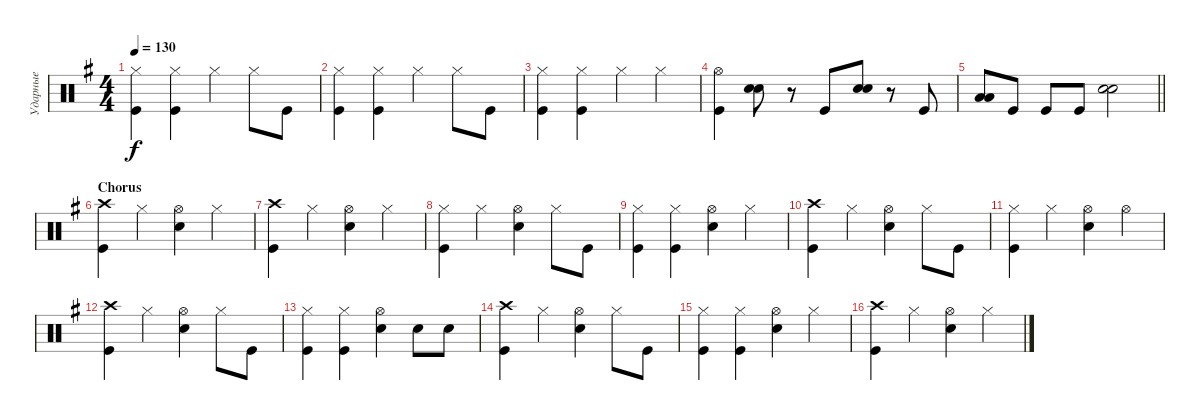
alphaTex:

\track ("Ударные" "Ударные") {instrument percussion}
\staff {score}
\articulation defaults
\ts (4 4)
\tempo 130
\clef neutral
\ks eminor
("Kick (hit)" "Hi-Hat (closed)").4{dy f} ("Hi-Hat (closed)" "Kick (hit)").4 "Hi-Hat (closed)".4 "Hi-Hat (closed)".8 "Kick (hit)".8 |
("Kick (hit)" "Hi-Hat (closed)").4 ("Hi-Hat (closed)" "Kick (hit)").4 "Hi-Hat (closed)".4 "Hi-Hat (closed)".8 "Kick (hit)".8 |
("Kick (hit)" "Hi-Hat (closed)").4 ("Hi-Hat (closed)" "Kick (hit)").4 "Hi-Hat (closed)".4 "Hi-Hat (closed)".4 |
("Hi-Hat (open)" "Kick (hit)").4 ("Snare (hit) 2" "Snare (hit) 2").8{bd 240} r.8 "Kick (hit)".8 ("Snare (hit) 2" "Snare (hit) 2").8{bd 240} r.8 "Kick (hit)".8 |
\barLineRight lightlight
("Low Tom (hit)" "Low Tom (hit)").8{bd 240} "Kick (hit)".8 "Kick (hit)".8 "Kick (hit)".8 ("Snare (hit) 2" "Snare (hit) 2").2{bd 240} |
\section ("" "Chorus")
("Kick (hit)" "Crash high (hit)").4 "Hi-Hat (closed)".4 ("Hi-Hat (open)" "Snare (hit) 2").4 "Hi-Hat (closed)".4 |
("Crash high (hit)" "Kick (hit)").4 "Hi-Hat (closed)".4 ("Hi-Hat (open)" "Snare (hit) 2").4 "Hi-Hat (closed)".4 |
("Hi-Hat (closed)" "Kick (hit)").4 "Hi-Hat (closed)".4 ("Hi-Hat (open)" "Snare (hit) 2").4 "Hi-Hat (closed)".8 "Kick (hit)".8 |
("Hi-Hat (closed)" "Kick (hit)").4 ("Hi-Hat (closed)" "Kick (hit)").4 ("Hi-Hat (open)" "Snare (hit) 2").4 "Hi-Hat (closed)".4 |
("Kick (hit)" "Crash high (hit)").4 "Hi-Hat (closed)".4 ("Hi-Hat (open)" "Snare (hit) 2").4 "Hi-Hat (closed)".8 "Kick (hit)".8 |
("Hi-Hat (closed)" "Kick (hit)").4 "Hi-Hat (closed)".4 ("Hi-Hat (open)" "Snare (hit) 2").4 "Hi-Hat (open)".4 |
("Crash high (hit)" "Kick (hit)").4 "Hi-Hat (closed)".4 ("Hi-Hat (open)" "Snare (hit) 2").4 "Hi-Hat (closed)".8 "Kick (hit)".8 |
("Hi-Hat (closed)" "Kick (hit)").4 ("Hi-Hat (closed)" "Kick (hit)").4 ("Hi-Hat (open)" "Snare (hit) 2").4 "Snare (hit) 2".8 "Snare (hit) 2".8 |
("Kick (hit)" "Crash high (hit)").4 "Hi-Hat (closed)".4 ("Hi-Hat (open)" "Snare (hit) 2").4 "Hi-Hat (closed)".8 "Kick (hit)".8 |
("Hi-Hat (closed)" "Kick (hit)").4 ("Hi-Hat (closed)" "Kick (hit)").4 ("Hi-Hat (open)" "Snare (hit) 2").4 "Hi-Hat (closed)".4 |
("Crash high (hit)" "Kick (hit)").4 "Hi-Hat (closed)".4 ("Hi-Hat (open)" "Snare (hit) 2").4 "Hi-Hat (closed)".4
